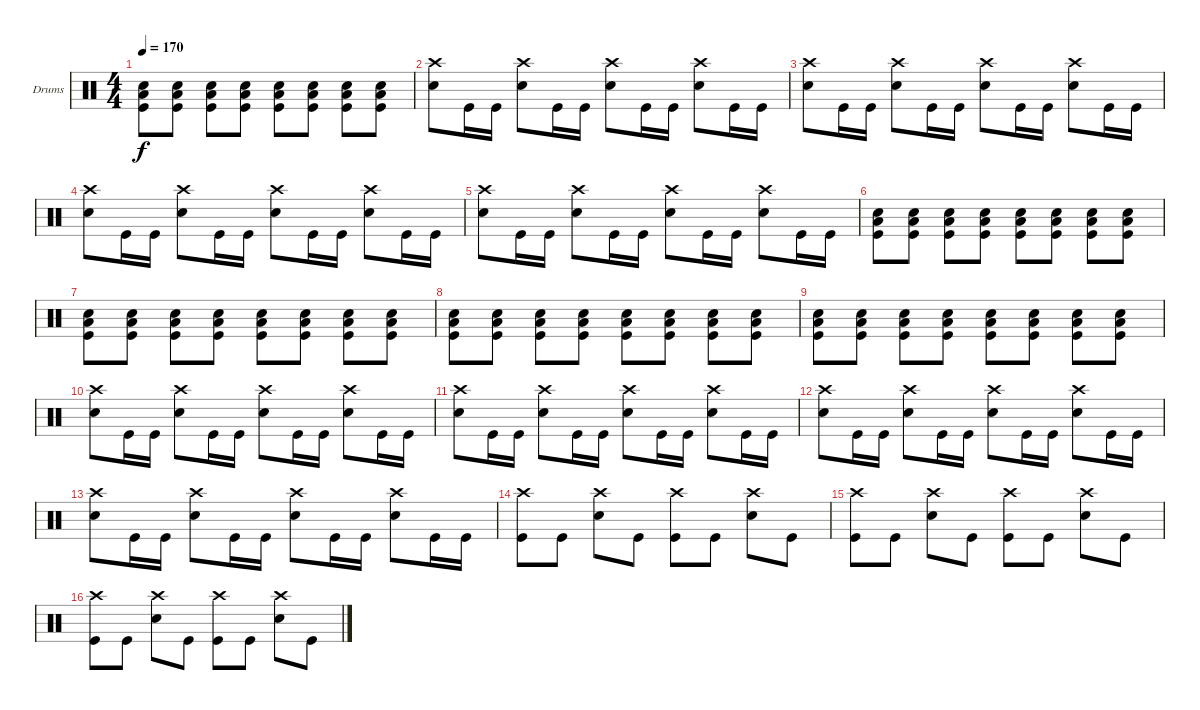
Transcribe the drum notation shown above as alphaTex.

\defaultSystemsLayout 4
\bracketExtendMode groupsimilarinstruments
\firstSystemTrackNameOrientation horizontal
\otherSystemsTrackNameOrientation horizontal
\track ("Drumkit" "Drums") {instrument percussion}
\staff {score}
\articulation defaults
\ts (4 4)
\tempo 170
\clef neutral
\ks c
("Snare (hit) 2" "Kick (hit)" "Low Tom (hit)").8{dy f} ("Snare (hit) 2" "Kick (hit)" "Low Tom (hit)").8 ("Snare (hit) 2" "Kick (hit)" "Low Tom (hit)").8 ("Snare (hit) 2" "Kick (hit)" "Low Tom (hit)").8 ("Snare (hit) 2" "Kick (hit)" "Low Tom (hit)").8 ("Snare (hit) 2" "Kick (hit)" "Low Tom (hit)").8 ("Snare (hit) 2" "Kick (hit)" "Low Tom (hit)").8 ("Snare (hit) 2" "Kick (hit)" "Low Tom (hit)").8 |
("Snare (hit) 2" "Crash high (hit)").8 "Kick (hit)".16 "Kick (hit)".16 ("Snare (hit) 2" "Crash high (hit)").8 "Kick (hit)".16 "Kick (hit)".16 ("Snare (hit) 2" "Crash high (hit)").8 "Kick (hit)".16 "Kick (hit)".16 ("Snare (hit) 2" "Crash high (hit)").8 "Kick (hit)".16 "Kick (hit)".16 |
("Snare (hit) 2" "Crash high (hit)").8 "Kick (hit)".16 "Kick (hit)".16 ("Snare (hit) 2" "Crash high (hit)").8 "Kick (hit)".16 "Kick (hit)".16 ("Snare (hit) 2" "Crash high (hit)").8 "Kick (hit)".16 "Kick (hit)".16 ("Snare (hit) 2" "Crash high (hit)").8 "Kick (hit)".16 "Kick (hit)".16 |
("Snare (hit) 2" "Crash high (hit)").8 "Kick (hit)".16 "Kick (hit)".16 ("Snare (hit) 2" "Crash high (hit)").8 "Kick (hit)".16 "Kick (hit)".16 ("Snare (hit) 2" "Crash high (hit)").8 "Kick (hit)".16 "Kick (hit)".16 ("Snare (hit) 2" "Crash high (hit)").8 "Kick (hit)".16 "Kick (hit)".16 |
("Snare (hit) 2" "Crash high (hit)").8 "Kick (hit)".16 "Kick (hit)".16 ("Snare (hit) 2" "Crash high (hit)").8 "Kick (hit)".16 "Kick (hit)".16 ("Snare (hit) 2" "Crash high (hit)").8 "Kick (hit)".16 "Kick (hit)".16 ("Snare (hit) 2" "Crash high (hit)").8 "Kick (hit)".16 "Kick (hit)".16 |
("Snare (hit) 2" "Kick (hit)" "Low Tom (hit)").8 ("Snare (hit) 2" "Kick (hit)" "Low Tom (hit)").8 ("Snare (hit) 2" "Kick (hit)" "Low Tom (hit)").8 ("Snare (hit) 2" "Kick (hit)" "Low Tom (hit)").8 ("Snare (hit) 2" "Kick (hit)" "Low Tom (hit)").8 ("Snare (hit) 2" "Kick (hit)" "Low Tom (hit)").8 ("Snare (hit) 2" "Kick (hit)" "Low Tom (hit)").8 ("Snare (hit) 2" "Kick (hit)" "Low Tom (hit)").8 |
("Snare (hit) 2" "Kick (hit)" "Low Tom (hit)").8 ("Snare (hit) 2" "Kick (hit)" "Low Tom (hit)").8 ("Snare (hit) 2" "Kick (hit)" "Low Tom (hit)").8 ("Snare (hit) 2" "Kick (hit)" "Low Tom (hit)").8 ("Snare (hit) 2" "Kick (hit)" "Low Tom (hit)").8 ("Snare (hit) 2" "Kick (hit)" "Low Tom (hit)").8 ("Snare (hit) 2" "Kick (hit)" "Low Tom (hit)").8 ("Snare (hit) 2" "Kick (hit)" "Low Tom (hit)").8 |
("Snare (hit) 2" "Kick (hit)" "Low Tom (hit)").8 ("Snare (hit) 2" "Kick (hit)" "Low Tom (hit)").8 ("Snare (hit) 2" "Kick (hit)" "Low Tom (hit)").8 ("Snare (hit) 2" "Kick (hit)" "Low Tom (hit)").8 ("Snare (hit) 2" "Kick (hit)" "Low Tom (hit)").8 ("Snare (hit) 2" "Kick (hit)" "Low Tom (hit)").8 ("Snare (hit) 2" "Kick (hit)" "Low Tom (hit)").8 ("Snare (hit) 2" "Kick (hit)" "Low Tom (hit)").8 |
("Snare (hit) 2" "Kick (hit)" "Low Tom (hit)").8 ("Snare (hit) 2" "Kick (hit)" "Low Tom (hit)").8 ("Snare (hit) 2" "Kick (hit)" "Low Tom (hit)").8 ("Snare (hit) 2" "Kick (hit)" "Low Tom (hit)").8 ("Snare (hit) 2" "Kick (hit)" "Low Tom (hit)").8 ("Snare (hit) 2" "Kick (hit)" "Low Tom (hit)").8 ("Snare (hit) 2" "Kick (hit)" "Low Tom (hit)").8 ("Snare (hit) 2" "Kick (hit)" "Low Tom (hit)").8 |
("Snare (hit) 2" "Crash high (hit)").8 "Kick (hit)".16 "Kick (hit)".16 ("Snare (hit) 2" "Crash high (hit)").8 "Kick (hit)".16 "Kick (hit)".16 ("Snare (hit) 2" "Crash high (hit)").8 "Kick (hit)".16 "Kick (hit)".16 ("Snare (hit) 2" "Crash high (hit)").8 "Kick (hit)".16 "Kick (hit)".16 |
("Snare (hit) 2" "Crash high (hit)").8 "Kick (hit)".16 "Kick (hit)".16 ("Snare (hit) 2" "Crash high (hit)").8 "Kick (hit)".16 "Kick (hit)".16 ("Snare (hit) 2" "Crash high (hit)").8 "Kick (hit)".16 "Kick (hit)".16 ("Snare (hit) 2" "Crash high (hit)").8 "Kick (hit)".16 "Kick (hit)".16 |
("Snare (hit) 2" "Crash high (hit)").8 "Kick (hit)".16 "Kick (hit)".16 ("Snare (hit) 2" "Crash high (hit)").8 "Kick (hit)".16 "Kick (hit)".16 ("Snare (hit) 2" "Crash high (hit)").8 "Kick (hit)".16 "Kick (hit)".16 ("Snare (hit) 2" "Crash high (hit)").8 "Kick (hit)".16 "Kick (hit)".16 |
("Snare (hit) 2" "Crash high (hit)").8 "Kick (hit)".16 "Kick (hit)".16 ("Snare (hit) 2" "Crash high (hit)").8 "Kick (hit)".16 "Kick (hit)".16 ("Snare (hit) 2" "Crash high (hit)").8 "Kick (hit)".16 "Kick (hit)".16 ("Snare (hit) 2" "Crash high (hit)").8 "Kick (hit)".16 "Kick (hit)".16 |
("Kick (hit)" "Crash high (hit)").8 "Kick (hit)".8 ("Snare (hit) 2" "Crash high (hit)").8 "Kick (hit)".8 ("Kick (hit)" "Crash high (hit)").8 "Kick (hit)".8 ("Snare (hit) 2" "Crash high (hit)").8 "Kick (hit)".8 |
("Kick (hit)" "Crash high (hit)").8 "Kick (hit)".8 ("Snare (hit) 2" "Crash high (hit)").8 "Kick (hit)".8 ("Kick (hit)" "Crash high (hit)").8 "Kick (hit)".8 ("Snare (hit) 2" "Crash high (hit)").8 "Kick (hit)".8 |
("Kick (hit)" "Crash high (hit)").8 "Kick (hit)".8 ("Snare (hit) 2" "Crash high (hit)").8 "Kick (hit)".8 ("Kick (hit)" "Crash high (hit)").8 "Kick (hit)".8 ("Snare (hit) 2" "Crash high (hit)").8 "Kick (hit)".8
